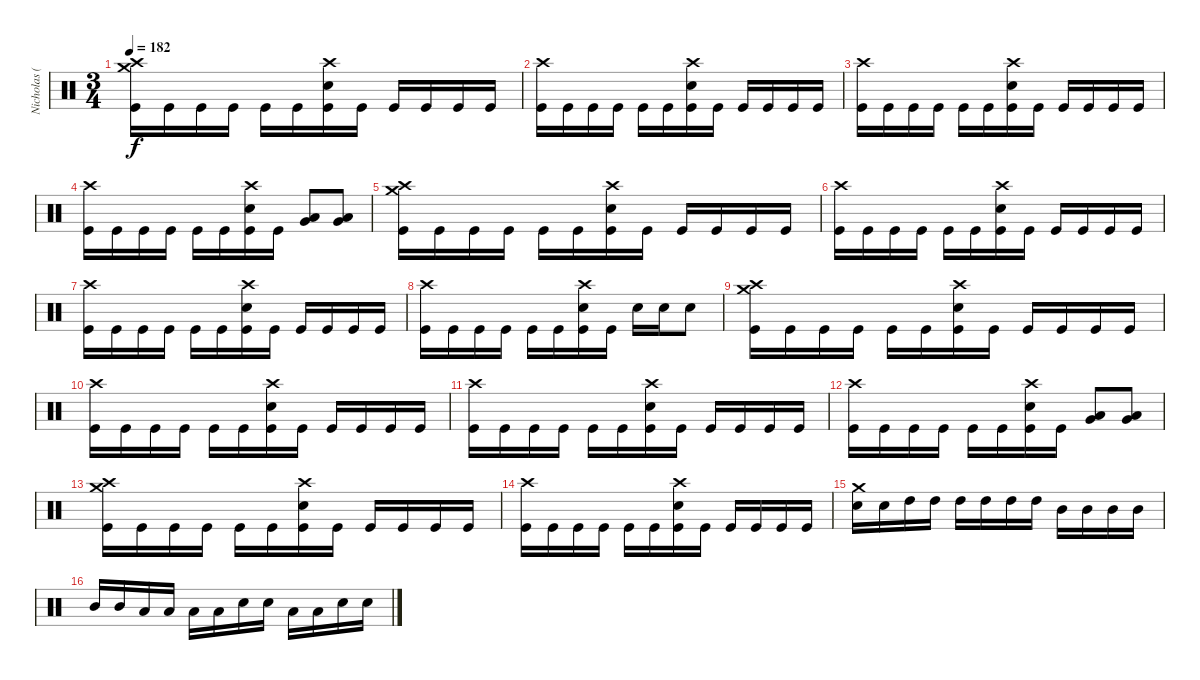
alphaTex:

\track ("Nicholas (Drums)" "Nicholas (") {instrument percussion}
\staff {score}
\articulation defaults
\ts (3 4)
\tempo 182
\clef neutral
\ks c
("Crash high (hit)" "Crash medium (hit)" "Kick (hit)").16{dy f} "Kick (hit)".16 "Kick (hit)".16 "Kick (hit)".16 "Kick (hit)".16 "Kick (hit)".16 ("Crash high (hit)" "Electric Snare (hit)" "Kick (hit)").16 "Kick (hit)".16 "Kick (hit)".16 "Kick (hit)".16 "Kick (hit)".16 "Kick (hit)".16 |
("Crash high (hit)" "Kick (hit)").16 "Kick (hit)".16 "Kick (hit)".16 "Kick (hit)".16 "Kick (hit)".16 "Kick (hit)".16 ("Crash high (hit)" "Electric Snare (hit)" "Kick (hit)").16 "Kick (hit)".16 "Kick (hit)".16 "Kick (hit)".16 "Kick (hit)".16 "Kick (hit)".16 |
("Crash high (hit)" "Kick (hit)").16 "Kick (hit)".16 "Kick (hit)".16 "Kick (hit)".16 "Kick (hit)".16 "Kick (hit)".16 ("Crash high (hit)" "Electric Snare (hit)" "Kick (hit)").16 "Kick (hit)".16 "Kick (hit)".16 "Kick (hit)".16 "Kick (hit)".16 "Kick (hit)".16 |
("Crash high (hit)" "Kick (hit)").16 "Kick (hit)".16 "Kick (hit)".16 "Kick (hit)".16 "Kick (hit)".16 "Kick (hit)".16 ("Crash high (hit)" "Electric Snare (hit)" "Kick (hit)").16 "Kick (hit)".16 ("Low Tom (hit)" "Very Low Tom (hit)").8{bu 120} ("Low Tom (hit)" "Very Low Tom (hit)").8{bu 120} |
("Crash high (hit)" "Crash medium (hit)" "Kick (hit)").16 "Kick (hit)".16 "Kick (hit)".16 "Kick (hit)".16 "Kick (hit)".16 "Kick (hit)".16 ("Crash high (hit)" "Electric Snare (hit)" "Kick (hit)").16 "Kick (hit)".16 "Kick (hit)".16 "Kick (hit)".16 "Kick (hit)".16 "Kick (hit)".16 |
("Crash high (hit)" "Kick (hit)").16 "Kick (hit)".16 "Kick (hit)".16 "Kick (hit)".16 "Kick (hit)".16 "Kick (hit)".16 ("Crash high (hit)" "Electric Snare (hit)" "Kick (hit)").16 "Kick (hit)".16 "Kick (hit)".16 "Kick (hit)".16 "Kick (hit)".16 "Kick (hit)".16 |
("Crash high (hit)" "Kick (hit)").16 "Kick (hit)".16 "Kick (hit)".16 "Kick (hit)".16 "Kick (hit)".16 "Kick (hit)".16 ("Crash high (hit)" "Electric Snare (hit)" "Kick (hit)").16 "Kick (hit)".16 "Kick (hit)".16 "Kick (hit)".16 "Kick (hit)".16 "Kick (hit)".16 |
("Crash high (hit)" "Kick (hit)").16 "Kick (hit)".16 "Kick (hit)".16 "Kick (hit)".16 "Kick (hit)".16 "Kick (hit)".16 ("Crash high (hit)" "Electric Snare (hit)" "Kick (hit)").16 "Kick (hit)".16 "Electric Snare (hit)".16 "Electric Snare (hit)".16 "Electric Snare (hit)".8 |
("Crash high (hit)" "Crash medium (hit)" "Kick (hit)").16 "Kick (hit)".16 "Kick (hit)".16 "Kick (hit)".16 "Kick (hit)".16 "Kick (hit)".16 ("Crash high (hit)" "Electric Snare (hit)" "Kick (hit)").16 "Kick (hit)".16 "Kick (hit)".16 "Kick (hit)".16 "Kick (hit)".16 "Kick (hit)".16 |
("Crash high (hit)" "Kick (hit)").16 "Kick (hit)".16 "Kick (hit)".16 "Kick (hit)".16 "Kick (hit)".16 "Kick (hit)".16 ("Crash high (hit)" "Electric Snare (hit)" "Kick (hit)").16 "Kick (hit)".16 "Kick (hit)".16 "Kick (hit)".16 "Kick (hit)".16 "Kick (hit)".16 |
("Crash high (hit)" "Kick (hit)").16 "Kick (hit)".16 "Kick (hit)".16 "Kick (hit)".16 "Kick (hit)".16 "Kick (hit)".16 ("Crash high (hit)" "Electric Snare (hit)" "Kick (hit)").16 "Kick (hit)".16 "Kick (hit)".16 "Kick (hit)".16 "Kick (hit)".16 "Kick (hit)".16 |
("Crash high (hit)" "Kick (hit)").16 "Kick (hit)".16 "Kick (hit)".16 "Kick (hit)".16 "Kick (hit)".16 "Kick (hit)".16 ("Crash high (hit)" "Electric Snare (hit)" "Kick (hit)").16 "Kick (hit)".16 ("Low Tom (hit)" "Very Low Tom (hit)").8{bu 120} ("Low Tom (hit)" "Very Low Tom (hit)").8{bu 120} |
("Crash high (hit)" "Crash medium (hit)" "Kick (hit)").16 "Kick (hit)".16 "Kick (hit)".16 "Kick (hit)".16 "Kick (hit)".16 "Kick (hit)".16 ("Crash high (hit)" "Electric Snare (hit)" "Kick (hit)").16 "Kick (hit)".16 "Kick (hit)".16 "Kick (hit)".16 "Kick (hit)".16 "Kick (hit)".16 |
("Crash high (hit)" "Kick (hit)").16 "Kick (hit)".16 "Kick (hit)".16 "Kick (hit)".16 "Kick (hit)".16 "Kick (hit)".16 ("Crash high (hit)" "Electric Snare (hit)" "Kick (hit)").16 "Kick (hit)".16 "Kick (hit)".16 "Kick (hit)".16 "Kick (hit)".16 "Kick (hit)".16 |
("Crash medium (hit)" "Electric Snare (hit)").16 "Electric Snare (hit)".16 "High Tom (hit)".16 "High Tom (hit)".16 "High Tom (hit)".16 "High Tom (hit)".16 "High Tom (hit)".16 "High Tom (hit)".16 "Mid Tom (hit)".16 "Mid Tom (hit)".16 "Mid Tom (hit)".16 "Mid Tom (hit)".16 |
"Mid Tom (hit)".16 "Mid Tom (hit)".16 "Low Tom (hit)".16 "Low Tom (hit)".16 "Low Tom (hit)".16 "Low Tom (hit)".16 "Electric Snare (hit)".16 "Electric Snare (hit)".16 "Low Tom (hit)".16 "Low Tom (hit)".16 "Electric Snare (hit)".16 "Electric Snare (hit)".16
